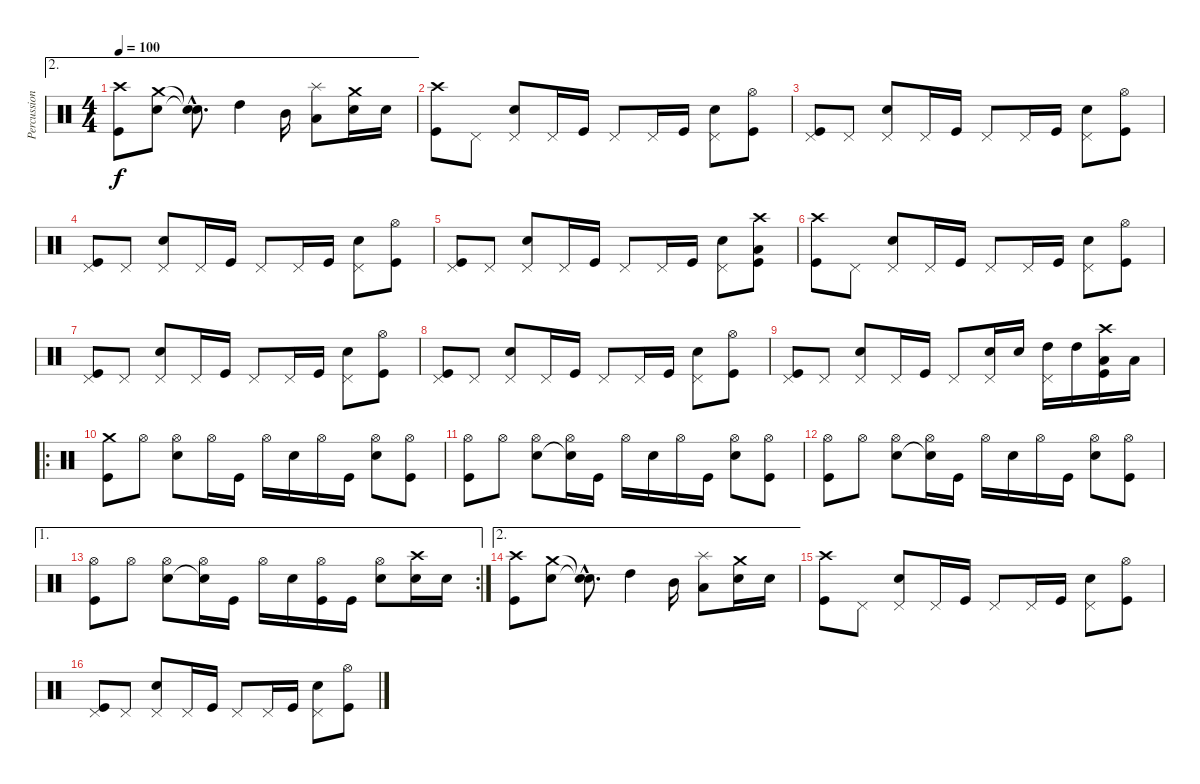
\track ("Percussions" "Percussion") {instrument percussion}
\staff {score}
\articulation defaults
\ae 2
\ts (4 4)
\tempo 100
\clef neutral
\ks c
("Crash high (hit)" "Kick (hit)").8{dy f} ("Crash medium (hit)" "Snare (hit) 2").8 ("Snare (hit)"{hac t} "Snare (hit)"{hac t}).8{d} "High Tom (hit)".4 "Mid Tom (hit)".16 ("Splash (hit)" "Low Tom (hit)").8 ("Crash medium (hit)" "Snare (hit) 2").16 "Snare (hit) 2".16 |
("Crash high (hit)" "Kick (hit)").8 "Pedal Hi-Hat (hit)".8 ("Pedal Hi-Hat (hit)" "Snare (hit) 2").8 "Pedal Hi-Hat (hit)".16 "Kick (hit)".16 "Pedal Hi-Hat (hit)".8 "Pedal Hi-Hat (hit)".16 "Kick (hit)".16 ("Pedal Hi-Hat (hit)" "Snare (hit) 2").8 ("Hi-Hat (open)" "Kick (hit)").8 |
("Pedal Hi-Hat (hit)" "Kick (hit)").8 "Pedal Hi-Hat (hit)".8 ("Pedal Hi-Hat (hit)" "Snare (hit) 2").8 "Pedal Hi-Hat (hit)".16 "Kick (hit)".16 "Pedal Hi-Hat (hit)".8 "Pedal Hi-Hat (hit)".16 "Kick (hit)".16 ("Pedal Hi-Hat (hit)" "Snare (hit) 2").8 ("Hi-Hat (open)" "Kick (hit)").8 |
("Pedal Hi-Hat (hit)" "Kick (hit)").8 "Pedal Hi-Hat (hit)".8 ("Pedal Hi-Hat (hit)" "Snare (hit) 2").8 "Pedal Hi-Hat (hit)".16 "Kick (hit)".16 "Pedal Hi-Hat (hit)".8 "Pedal Hi-Hat (hit)".16 "Kick (hit)".16 ("Pedal Hi-Hat (hit)" "Snare (hit) 2").8 ("Hi-Hat (open)" "Kick (hit)").8 |
("Pedal Hi-Hat (hit)" "Kick (hit)").8 "Pedal Hi-Hat (hit)".8 ("Pedal Hi-Hat (hit)" "Snare (hit) 2").8 "Pedal Hi-Hat (hit)".16 "Kick (hit)".16 "Pedal Hi-Hat (hit)".8 "Pedal Hi-Hat (hit)".16 "Kick (hit)".16 ("Pedal Hi-Hat (hit)" "Snare (hit) 2").8 ("Crash high (hit)" "Low Tom (hit)" "Kick (hit)").8 |
("Crash high (hit)" "Kick (hit)").8 "Pedal Hi-Hat (hit)".8 ("Pedal Hi-Hat (hit)" "Snare (hit) 2").8 "Pedal Hi-Hat (hit)".16 "Kick (hit)".16 "Pedal Hi-Hat (hit)".8 "Pedal Hi-Hat (hit)".16 "Kick (hit)".16 ("Pedal Hi-Hat (hit)" "Snare (hit) 2").8 ("Hi-Hat (open)" "Kick (hit)").8 |
("Pedal Hi-Hat (hit)" "Kick (hit)").8 "Pedal Hi-Hat (hit)".8 ("Pedal Hi-Hat (hit)" "Snare (hit) 2").8 "Pedal Hi-Hat (hit)".16 "Kick (hit)".16 "Pedal Hi-Hat (hit)".8 "Pedal Hi-Hat (hit)".16 "Kick (hit)".16 ("Pedal Hi-Hat (hit)" "Snare (hit) 2").8 ("Hi-Hat (open)" "Kick (hit)").8 |
("Pedal Hi-Hat (hit)" "Kick (hit)").8 "Pedal Hi-Hat (hit)".8 ("Pedal Hi-Hat (hit)" "Snare (hit) 2").8 "Pedal Hi-Hat (hit)".16 "Kick (hit)".16 "Pedal Hi-Hat (hit)".8 "Pedal Hi-Hat (hit)".16 "Kick (hit)".16 ("Pedal Hi-Hat (hit)" "Snare (hit) 2").8 ("Hi-Hat (open)" "Kick (hit)").8 |
("Pedal Hi-Hat (hit)" "Kick (hit)").8 "Pedal Hi-Hat (hit)".8 ("Pedal Hi-Hat (hit)" "Snare (hit) 2").8 "Pedal Hi-Hat (hit)".16 "Kick (hit)".16 "Pedal Hi-Hat (hit)".8 ("Pedal Hi-Hat (hit)" "Snare (hit) 2").16 "Snare (hit) 2".16 ("Pedal Hi-Hat (hit)" "High Tom (hit)").16 "High Tom (hit)".16 ("Crash high (hit)" "Low Tom (hit)" "Kick (hit)").16 "Low Tom (hit)".16 |
\ro
("Crash medium (hit)" "Kick (hit)").8 "Hi-Hat (open)".8 ("Hi-Hat (open)" "Snare (hit) 2").8 "Hi-Hat (open)".16 "Kick (hit)".16 "Hi-Hat (open)".16 "Snare (hit) 2".16 "Hi-Hat (open)".16 "Kick (hit)".16 ("Hi-Hat (open)" "Snare (hit) 2").8 ("Hi-Hat (open)" "Kick (hit)").8 |
("Hi-Hat (open)" "Kick (hit)").8 "Hi-Hat (open)".8 ("Hi-Hat (open)" "Snare (hit) 2").8 ("Hi-Hat (open)" "Snare (hit)"{t}).16 "Kick (hit)".16 "Hi-Hat (open)".16 "Snare (hit) 2".16 "Hi-Hat (open)".16 "Kick (hit)".16 ("Hi-Hat (open)" "Snare (hit) 2").8 ("Hi-Hat (open)" "Kick (hit)").8 |
("Hi-Hat (open)" "Kick (hit)").8 "Hi-Hat (open)".8 ("Hi-Hat (open)" "Snare (hit) 2").8 ("Hi-Hat (open)" "Snare (hit)"{t}).16 "Kick (hit)".16 "Hi-Hat (open)".16 "Snare (hit) 2".16 "Hi-Hat (open)".16 "Kick (hit)".16 ("Hi-Hat (open)" "Snare (hit) 2").8 ("Hi-Hat (open)" "Kick (hit)").8 |
\ae 1
\rc 2
("Hi-Hat (open)" "Kick (hit)").8 "Hi-Hat (open)".8 ("Hi-Hat (open)" "Snare (hit) 2").8 ("Hi-Hat (open)" "Snare (hit)"{t}).16 "Kick (hit)".16 "Hi-Hat (open)".16 "Snare (hit) 2".16 ("Hi-Hat (open)" "Kick (hit)").16 "Kick (hit)".16 ("Hi-Hat (open)" "Snare (hit) 2").8 ("Crash high (hit)" "Snare (hit) 2").16 "Snare (hit) 2".16 |
\ae 2
("Crash high (hit)" "Kick (hit)").8 ("Crash medium (hit)" "Snare (hit) 2").8 ("Snare (hit)"{hac t} "Snare (hit)"{hac t}).8{d} "High Tom (hit)".4 "Mid Tom (hit)".16 ("Splash (hit)" "Low Tom (hit)").8 ("Crash medium (hit)" "Snare (hit) 2").16 "Snare (hit) 2".16 |
("Crash high (hit)" "Kick (hit)").8 "Pedal Hi-Hat (hit)".8 ("Pedal Hi-Hat (hit)" "Snare (hit) 2").8 "Pedal Hi-Hat (hit)".16 "Kick (hit)".16 "Pedal Hi-Hat (hit)".8 "Pedal Hi-Hat (hit)".16 "Kick (hit)".16 ("Pedal Hi-Hat (hit)" "Snare (hit) 2").8 ("Hi-Hat (open)" "Kick (hit)").8 |
("Pedal Hi-Hat (hit)" "Kick (hit)").8 "Pedal Hi-Hat (hit)".8 ("Pedal Hi-Hat (hit)" "Snare (hit) 2").8 "Pedal Hi-Hat (hit)".16 "Kick (hit)".16 "Pedal Hi-Hat (hit)".8 "Pedal Hi-Hat (hit)".16 "Kick (hit)".16 ("Pedal Hi-Hat (hit)" "Snare (hit) 2").8 ("Hi-Hat (open)" "Kick (hit)").8
